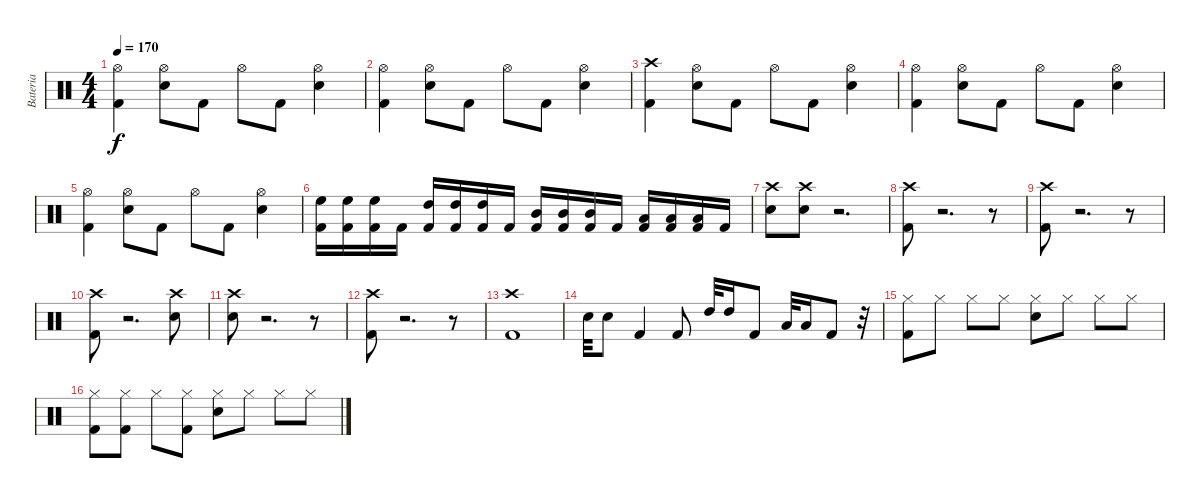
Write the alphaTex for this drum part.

\track ("Bateria" "Bateria") {instrument percussion}
\staff {score}
\articulation defaults
\ts (4 4)
\tempo 170
\clef neutral
\ks c
("Hi-Hat (open)" "Kick (hit) 2").4{dy f} ("Hi-Hat (open)" "Snare (hit) 2").8 "Kick (hit) 2".8 "Hi-Hat (open)".8 "Kick (hit) 2".8 ("Hi-Hat (open)" "Snare (hit) 2").4 |
("Hi-Hat (open)" "Kick (hit) 2").4 ("Hi-Hat (open)" "Snare (hit) 2").8 "Kick (hit) 2".8 "Hi-Hat (open)".8 "Kick (hit) 2".8 ("Hi-Hat (open)" "Snare (hit) 2").4 |
("Crash high (hit)" "Kick (hit) 2").4 ("Hi-Hat (open)" "Snare (hit) 2").8 "Kick (hit) 2".8 "Hi-Hat (open)".8 "Kick (hit) 2".8 ("Hi-Hat (open)" "Snare (hit) 2").4 |
("Hi-Hat (open)" "Kick (hit) 2").4 ("Hi-Hat (open)" "Snare (hit) 2").8 "Kick (hit) 2".8 "Hi-Hat (open)".8 "Kick (hit) 2".8 ("Hi-Hat (open)" "Snare (hit) 2").4 |
("Hi-Hat (open)" "Kick (hit) 2").4 ("Hi-Hat (open)" "Snare (hit) 2").8 "Kick (hit) 2".8 "Hi-Hat (open)".8 "Kick (hit) 2".8 ("Hi-Hat (open)" "Snare (hit) 2").4 |
("High Floor Tom (hit)" "Kick (hit) 2").16 ("High Floor Tom (hit)" "Kick (hit) 2").16 ("High Floor Tom (hit)" "Kick (hit) 2").16 "Kick (hit) 2".16 ("High Tom (hit)" "Kick (hit) 2").16 ("High Tom (hit)" "Kick (hit) 2").16 ("High Tom (hit)" "Kick (hit) 2").16 "Kick (hit) 2".16 ("Mid Tom (hit)" "Kick (hit) 2").16 ("Mid Tom (hit)" "Kick (hit) 2").16 ("Mid Tom (hit)" "Kick (hit) 2").16 "Kick (hit) 2".16 ("Low Tom (hit)" "Kick (hit) 2").16 ("Low Tom (hit)" "Kick (hit) 2").16 ("Low Tom (hit)" "Kick (hit) 2").16 "Kick (hit) 2".16 |
("Crash high (hit)" "Snare (hit) 2").8 ("Crash high (hit)" "Snare (hit) 2").8 r.2{d} |
("Crash high (hit)" "Kick (hit) 2").8 r.2{d} r.8 |
("Crash high (hit)" "Kick (hit) 2").8 r.2{d} r.8 |
("Crash high (hit)" "Kick (hit) 2").8 r.2{d} ("Crash high (hit)" "Snare (hit) 2").8 |
("Crash high (hit)" "Snare (hit) 2").8 r.2{d} r.8 |
("Crash high (hit)" "Kick (hit) 2").8 r.2{d} r.8 |
("Crash high (hit)" "Kick (hit) 2").1 |
"Snare (hit) 2".32 "Snare (hit) 2".8 "Kick (hit) 2".4 "Kick (hit) 2".8 "High Tom (hit)".32 "High Tom (hit)".16 "Kick (hit) 2".8 "Low Tom (hit)".32 "Low Tom (hit)".16 "Kick (hit) 2".8 r.32 |
("Hi-Hat (closed)" "Kick (hit) 2").8 "Hi-Hat (closed)".8 "Hi-Hat (closed)".8 "Hi-Hat (closed)".8 ("Hi-Hat (closed)" "Snare (hit) 2").8 "Hi-Hat (closed)".8 "Hi-Hat (closed)".8 "Hi-Hat (closed)".8 |
("Hi-Hat (closed)" "Kick (hit) 2").8 ("Hi-Hat (closed)" "Kick (hit) 2").8 "Hi-Hat (closed)".8 ("Hi-Hat (closed)" "Kick (hit) 2").8 ("Hi-Hat (closed)" "Snare (hit) 2").8 "Hi-Hat (closed)".8 "Hi-Hat (closed)".8 "Hi-Hat (closed)".8
